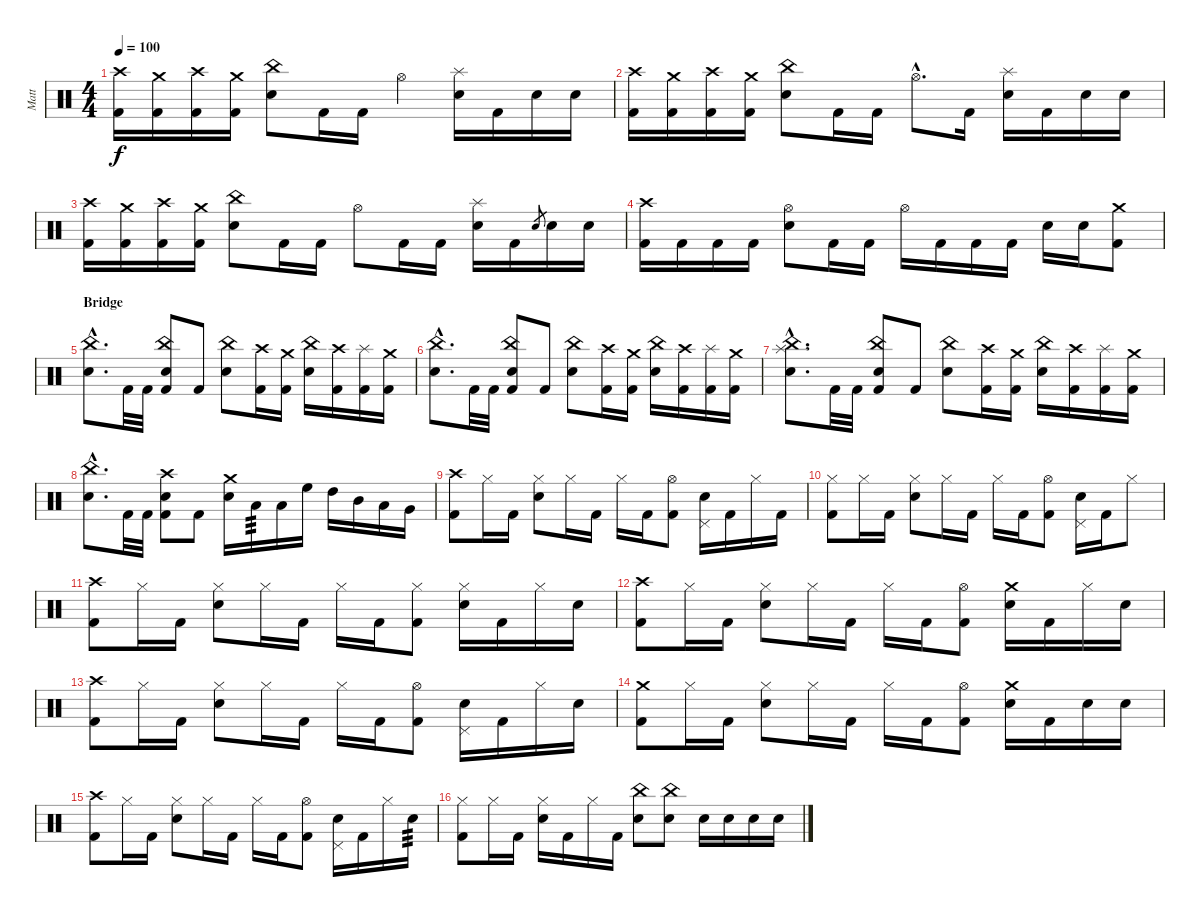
\track ("Matt" "Matt") {instrument percussion}
\staff {score}
\articulation defaults
\ts (4 4)
\tempo 100
\clef neutral
\ks c
("Crash high (hit)" "Kick (hit) 2").16{dy f} ("Crash medium (hit)" "Kick (hit) 2").16 ("Crash high (hit)" "Kick (hit) 2").16 ("Crash medium (hit)" "Kick (hit) 2").16 ("China (hit)" "Electric Snare (hit)").8 "Kick (hit) 2".16 "Kick (hit) 2".16 "Hi-Hat (open)".4 ("Splash (hit)" "Electric Snare (hit)").16 "Kick (hit) 2".16 "Electric Snare (hit)".16 "Electric Snare (hit)".16 |
("Crash high (hit)" "Kick (hit) 2").16 ("Crash medium (hit)" "Kick (hit) 2").16 ("Crash high (hit)" "Kick (hit) 2").16 ("Crash medium (hit)" "Kick (hit) 2").16 ("China (hit)" "Electric Snare (hit)").8 "Kick (hit) 2".16 "Kick (hit) 2".16 "Hi-Hat (open)"{hac}.8{d} "Kick (hit) 2".16 ("Splash (hit)" "Electric Snare (hit)").16 "Kick (hit) 2".16 "Electric Snare (hit)".16 "Electric Snare (hit)".16 |
("Crash high (hit)" "Kick (hit) 2").16 ("Crash medium (hit)" "Kick (hit) 2").16 ("Crash high (hit)" "Kick (hit) 2").16 ("Crash medium (hit)" "Kick (hit) 2").16 ("China (hit)" "Electric Snare (hit)").8 "Kick (hit) 2".16 "Kick (hit) 2".16 "Hi-Hat (open)".8 "Kick (hit) 2".16 "Kick (hit) 2".16 ("Splash (hit)" "Electric Snare (hit)").16 "Kick (hit) 2".16 "Electric Snare (hit)".8{gr} "Electric Snare (hit)".16 "Electric Snare (hit)".16 |
("Crash high (hit)" "Kick (hit) 2").16 "Kick (hit) 2".16 "Kick (hit) 2".16 "Kick (hit) 2".16 ("Hi-Hat (open)" "Electric Snare (hit)").8 "Kick (hit) 2".16 "Kick (hit) 2".16 "Hi-Hat (open)".16 "Kick (hit) 2".16 "Kick (hit) 2".16 "Kick (hit) 2".16 "Electric Snare (hit)".16 "Electric Snare (hit)".16 ("Crash medium (hit)" "Kick (hit) 2").8 |
\section ("" "Bridge")
("China (hit)"{hac} "Electric Snare (hit)"{hac}).8{d} "Kick (hit) 2".32 "Kick (hit) 2".32 ("China (hit)" "Electric Snare (hit)" "Kick (hit) 2").8 "Kick (hit) 2".8 ("China (hit)" "Electric Snare (hit)").8 ("Crash high (hit)" "Kick (hit) 2").16 ("Crash medium (hit)" "Kick (hit) 2").16 ("China (hit)" "Electric Snare (hit)").16 ("Crash high (hit)" "Kick (hit) 2").16 ("Splash (hit)" "Kick (hit) 2").16 ("Crash medium (hit)" "Kick (hit) 2").16 |
("China (hit)"{hac} "Electric Snare (hit)"{hac}).8{d} "Kick (hit) 2".32 "Kick (hit) 2".32 ("China (hit)" "Electric Snare (hit)" "Kick (hit) 2").8 "Kick (hit) 2".8 ("China (hit)" "Electric Snare (hit)").8 ("Crash high (hit)" "Kick (hit) 2").16 ("Crash medium (hit)" "Kick (hit) 2").16 ("China (hit)" "Electric Snare (hit)").16 ("Crash high (hit)" "Kick (hit) 2").16 ("Splash (hit)" "Kick (hit) 2").16 ("Crash medium (hit)" "Kick (hit) 2").16 |
("China (hit)"{hac} "Splash (hit)"{hac} "Electric Snare (hit)"{hac}).8{d} "Kick (hit) 2".32 "Kick (hit) 2".32 ("China (hit)" "Electric Snare (hit)" "Kick (hit) 2").8 "Kick (hit) 2".8 ("China (hit)" "Electric Snare (hit)").8 ("Crash high (hit)" "Kick (hit) 2").16 ("Crash medium (hit)" "Kick (hit) 2").16 ("China (hit)" "Electric Snare (hit)").16 ("Crash high (hit)" "Kick (hit) 2").16 ("Splash (hit)" "Kick (hit) 2").16 ("Crash medium (hit)" "Kick (hit) 2").16 |
("China (hit)"{hac} "Electric Snare (hit)"{hac}).8{d} "Kick (hit) 2".32 "Kick (hit) 2".32 ("Crash high (hit)" "Electric Snare (hit)" "Kick (hit) 2").8 "Kick (hit) 2".8 ("Crash medium (hit)" "Electric Snare (hit)").16 "Low Tom (hit)".16{tp 3} "Low Tom (hit)".16 "High Floor Tom (hit)".16 "High Tom (hit)".16 "Mid Tom (hit)".16 "Low Tom (hit)".16 "Very Low Tom (hit)".16 |
("Crash high (hit)" "Kick (hit) 2").8 "Hi-Hat (closed)".16 "Kick (hit) 2".16 ("Hi-Hat (closed)" "Electric Snare (hit)").8 "Hi-Hat (closed)".16 "Kick (hit) 2".16 "Hi-Hat (closed)".16 "Kick (hit) 2".16 ("Hi-Hat (open)" "Kick (hit) 2").8 ("Pedal Hi-Hat (hit)" "Electric Snare (hit)").16 "Kick (hit) 2".16 "Hi-Hat (closed)".16 "Kick (hit) 2".16 |
("Hi-Hat (closed)" "Kick (hit) 2").8 "Hi-Hat (closed)".16 "Kick (hit) 2".16 ("Hi-Hat (closed)" "Electric Snare (hit)").8 "Hi-Hat (closed)".16 "Kick (hit) 2".16 "Hi-Hat (closed)".16 "Kick (hit) 2".16 ("Hi-Hat (open)" "Kick (hit) 2").8 ("Pedal Hi-Hat (hit)" "Electric Snare (hit)").16 "Kick (hit) 2".16 "Hi-Hat (closed)".8 |
("Crash high (hit)" "Kick (hit) 2").8 "Hi-Hat (closed)".16 "Kick (hit) 2".16 ("Hi-Hat (closed)" "Electric Snare (hit)").8 "Hi-Hat (closed)".16 "Kick (hit) 2".16 "Hi-Hat (closed)".16 "Kick (hit) 2".16 ("Hi-Hat (closed)" "Kick (hit) 2").8 ("Hi-Hat (closed)" "Electric Snare (hit)").16 "Kick (hit) 2".16 "Hi-Hat (closed)".16 "Electric Snare (hit)".16 |
("Crash high (hit)" "Kick (hit) 2").8 "Hi-Hat (closed)".16 "Kick (hit) 2".16 ("Hi-Hat (closed)" "Electric Snare (hit)").8 "Hi-Hat (closed)".16 "Kick (hit) 2".16 "Hi-Hat (closed)".16 "Kick (hit) 2".16 ("Hi-Hat (open)" "Kick (hit) 2").8 ("Crash medium (hit)" "Electric Snare (hit)").16 "Kick (hit) 2".16 "Hi-Hat (closed)".16 "Electric Snare (hit)".16 |
("Crash high (hit)" "Kick (hit) 2").8 "Hi-Hat (closed)".16 "Kick (hit) 2".16 ("Hi-Hat (closed)" "Electric Snare (hit)").8 "Hi-Hat (closed)".16 "Kick (hit) 2".16 "Hi-Hat (closed)".16 "Kick (hit) 2".16 ("Hi-Hat (open)" "Kick (hit) 2").8 ("Pedal Hi-Hat (hit)" "Electric Snare (hit)").16 "Kick (hit) 2".16 "Hi-Hat (closed)".16 "Electric Snare (hit)".16 |
("Crash medium (hit)" "Kick (hit) 2").8 "Hi-Hat (closed)".16 "Kick (hit) 2".16 ("Hi-Hat (closed)" "Electric Snare (hit)").8 "Hi-Hat (closed)".16 "Kick (hit) 2".16 "Hi-Hat (closed)".16 "Kick (hit) 2".16 ("Hi-Hat (open)" "Kick (hit) 2").8 ("Crash medium (hit)" "Electric Snare (hit)").16 "Kick (hit) 2".16 "Electric Snare (hit)".16 "Electric Snare (hit)".16 |
("Crash high (hit)" "Kick (hit) 2").8 "Hi-Hat (closed)".16 "Kick (hit) 2".16 ("Hi-Hat (closed)" "Electric Snare (hit)").8 "Hi-Hat (closed)".16 "Kick (hit) 2".16 "Hi-Hat (closed)".16 "Kick (hit) 2".16 ("Hi-Hat (open)" "Kick (hit) 2").8 ("Pedal Hi-Hat (hit)" "Electric Snare (hit)").16 "Kick (hit) 2".16 "Hi-Hat (closed)".16 "Electric Snare (hit)".16{tp 3} |
("Hi-Hat (closed)" "Kick (hit) 2").8 "Hi-Hat (closed)".16 "Kick (hit) 2".16 ("Hi-Hat (closed)" "Electric Snare (hit)").16 "Kick (hit) 2".16 "Hi-Hat (closed)".16 "Kick (hit) 2".16 ("China (hit)" "Electric Snare (hit)").8 ("China (hit)" "Electric Snare (hit)").8 "Electric Snare (hit)".16 "Electric Snare (hit)".16 "Electric Snare (hit)".16 "Electric Snare (hit)".16
